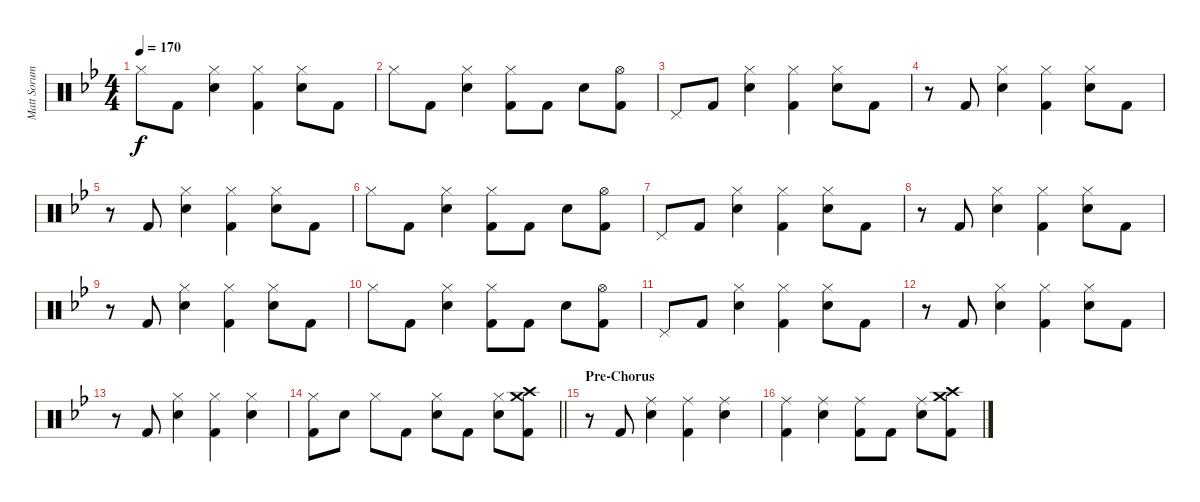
\track ("Matt Sorum - Drums" "Matt Sorum") {instrument percussion}
\staff {score}
\articulation defaults
\ts (4 4)
\tempo 170
\clef neutral
\ks bb "Hi-Hat (closed)".8{dy f} "Kick (hit) 2".8
("Hi-Hat (closed)" "Snare (hit) 2").4 ("Hi-Hat (closed)" "Kick (hit) 2").4 ("Hi-Hat (closed)" "Snare (hit) 2").8 "Kick (hit) 2".8 |
"Hi-Hat (closed)".8 "Kick (hit) 2".8 ("Hi-Hat (closed)" "Snare (hit) 2").4 ("Hi-Hat (closed)" "Kick (hit) 2").8 "Kick (hit) 2".8 "Snare (hit) 2".8 ("Hi-Hat (open)" "Kick (hit) 2").8 |
"Pedal Hi-Hat (hit)".8 "Kick (hit) 2".8 ("Hi-Hat (closed)" "Snare (hit) 2").4 ("Hi-Hat (closed)" "Kick (hit) 2").4 ("Hi-Hat (closed)" "Snare (hit) 2").8 "Kick (hit) 2".8 |
r.8 "Kick (hit) 2".8 ("Hi-Hat (closed)" "Snare (hit) 2").4 ("Hi-Hat (closed)" "Kick (hit) 2").4 ("Hi-Hat (closed)" "Snare (hit) 2").8 "Kick (hit) 2".8 |
r.8 "Kick (hit) 2".8 ("Hi-Hat (closed)" "Snare (hit) 2").4 ("Hi-Hat (closed)" "Kick (hit) 2").4 ("Hi-Hat (closed)" "Snare (hit) 2").8 "Kick (hit) 2".8 |
"Hi-Hat (closed)".8 "Kick (hit) 2".8 ("Hi-Hat (closed)" "Snare (hit) 2").4 ("Hi-Hat (closed)" "Kick (hit) 2").8 "Kick (hit) 2".8 "Snare (hit) 2".8 ("Hi-Hat (open)" "Kick (hit) 2").8 |
"Pedal Hi-Hat (hit)".8 "Kick (hit) 2".8 ("Hi-Hat (closed)" "Snare (hit) 2").4 ("Hi-Hat (closed)" "Kick (hit) 2").4 ("Hi-Hat (closed)" "Snare (hit) 2").8 "Kick (hit) 2".8 |
r.8 "Kick (hit) 2".8 ("Hi-Hat (closed)" "Snare (hit) 2").4 ("Hi-Hat (closed)" "Kick (hit) 2").4 ("Hi-Hat (closed)" "Snare (hit) 2").8 "Kick (hit) 2".8 |
r.8 "Kick (hit) 2".8 ("Hi-Hat (closed)" "Snare (hit) 2").4 ("Hi-Hat (closed)" "Kick (hit) 2").4 ("Hi-Hat (closed)" "Snare (hit) 2").8 "Kick (hit) 2".8 |
"Hi-Hat (closed)".8 "Kick (hit) 2".8 ("Hi-Hat (closed)" "Snare (hit) 2").4 ("Hi-Hat (closed)" "Kick (hit) 2").8 "Kick (hit) 2".8 "Snare (hit) 2".8 ("Hi-Hat (open)" "Kick (hit) 2").8 |
"Pedal Hi-Hat (hit)".8 "Kick (hit) 2".8 ("Hi-Hat (closed)" "Snare (hit) 2").4 ("Hi-Hat (closed)" "Kick (hit) 2").4 ("Hi-Hat (closed)" "Snare (hit) 2").8 "Kick (hit) 2".8 |
r.8 "Kick (hit) 2".8 ("Hi-Hat (closed)" "Snare (hit) 2").4 ("Hi-Hat (closed)" "Kick (hit) 2").4 ("Hi-Hat (closed)" "Snare (hit) 2").8 "Kick (hit) 2".8 |
r.8 "Kick (hit) 2".8 ("Hi-Hat (closed)" "Snare (hit) 2").4 ("Hi-Hat (closed)" "Kick (hit) 2").4 ("Hi-Hat (closed)" "Snare (hit) 2").4 |
\barLineRight lightlight
("Hi-Hat (closed)" "Kick (hit) 2").8 "Snare (hit) 2".8 "Hi-Hat (closed)".8 "Kick (hit) 2".8 ("Hi-Hat (closed)" "Snare (hit) 2").8 "Kick (hit) 2".8 ("Hi-Hat (closed)" "Snare (hit) 2").8 ("Crash medium (hit)" "Crash high (hit)" "Kick (hit) 2").8 |
\section ("" "Pre-Chorus")
r.8 "Kick (hit) 2".8 ("Ride (middle)" "Snare (hit) 2").4 ("Ride (middle)" "Kick (hit) 2").4 ("Ride (middle)" "Snare (hit) 2").4 |
("Ride (middle)" "Kick (hit) 2").4 ("Ride (middle)" "Snare (hit) 2").4 ("Ride (middle)" "Kick (hit) 2").8 "Kick (hit) 2".8 ("Ride (middle)" "Snare (hit) 2").8 ("Crash medium (hit)" "Crash high (hit)" "Kick (hit) 2").8
